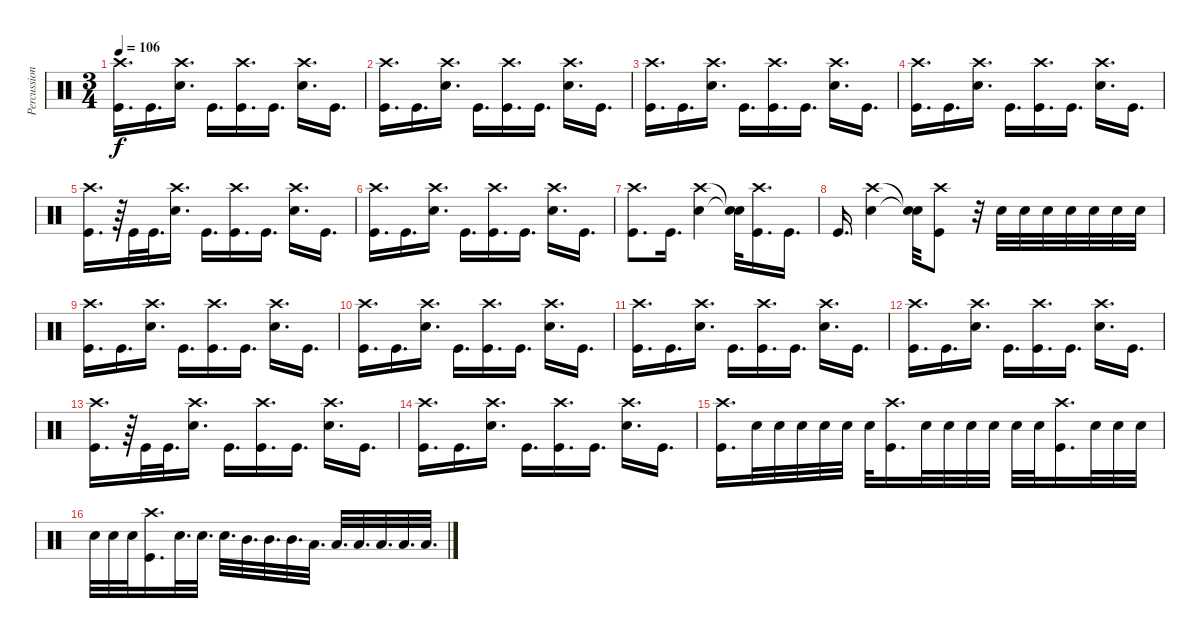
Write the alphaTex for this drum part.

\track ("Percussion" "Percussion") {instrument percussion}
\staff {score}
\articulation defaults
\ts (3 4)
\tempo 106
\clef neutral
\ks c
("Crash high (hit)" "Kick (hit)").16{d dy f} "Kick (hit)".16{d} ("Crash high (hit)" "Electric Snare (hit)").16{d} "Kick (hit)".16{d} ("Crash high (hit)" "Kick (hit)").16{d} "Kick (hit)".16{d} ("Crash high (hit)" "Electric Snare (hit)").16{d} "Kick (hit)".16{d} |
("Crash high (hit)" "Kick (hit)").16{d} "Kick (hit)".16{d} ("Crash high (hit)" "Electric Snare (hit)").16{d} "Kick (hit)".16{d} ("Crash high (hit)" "Kick (hit)").16{d} "Kick (hit)".16{d} ("Crash high (hit)" "Electric Snare (hit)").16{d} "Kick (hit)".16{d} |
("Crash high (hit)" "Kick (hit)").16{d} "Kick (hit)".16{d} ("Crash high (hit)" "Electric Snare (hit)").16{d} "Kick (hit)".16{d} ("Crash high (hit)" "Kick (hit)").16{d} "Kick (hit)".16{d} ("Crash high (hit)" "Electric Snare (hit)").16{d} "Kick (hit)".16{d} |
("Crash high (hit)" "Kick (hit)").16{d} "Kick (hit)".16{d} ("Crash high (hit)" "Electric Snare (hit)").16{d} "Kick (hit)".16{d} ("Crash high (hit)" "Kick (hit)").16{d} "Kick (hit)".16{d} ("Crash high (hit)" "Electric Snare (hit)").16{d} "Kick (hit)".16{d} |
("Crash high (hit)" "Kick (hit)").16{d} r.64 "Kick (hit)".32 "Kick (hit)".32{d} ("Crash high (hit)" "Electric Snare (hit)").16{d} "Kick (hit)".16{d} ("Crash high (hit)" "Kick (hit)").16{d} "Kick (hit)".16{d} ("Crash high (hit)" "Electric Snare (hit)").16{d} "Kick (hit)".16{d} |
("Crash high (hit)" "Kick (hit)").16{d} "Kick (hit)".16{d} ("Crash high (hit)" "Electric Snare (hit)").16{d} "Kick (hit)".16{d} ("Crash high (hit)" "Kick (hit)").16{d} "Kick (hit)".16{d} ("Crash high (hit)" "Electric Snare (hit)").16{d} "Kick (hit)".16{d} |
("Crash high (hit)" "Kick (hit)").8{d} "Kick (hit)".16{d} ("Crash high (hit)" "Electric Snare (hit)").4 ("Snare (hit)"{t} "Snare (hit)"{t}).32 ("Crash high (hit)" "Kick (hit)").16{d} "Kick (hit)".16{d} |
"Kick (hit)".16{d} ("Crash high (hit)" "Electric Snare (hit)").4 ("Snare (hit)"{t} "Snare (hit)"{t}).32 ("Crash high (hit)" "Kick (hit)").8 r.32 "Electric Snare (hit)".32 "Electric Snare (hit)".32 "Electric Snare (hit)".32 "Electric Snare (hit)".32 "Electric Snare (hit)".32 "Electric Snare (hit)".32 "Electric Snare (hit)".32 |
("Crash high (hit)" "Kick (hit)").16{d} "Kick (hit)".16{d} ("Crash high (hit)" "Electric Snare (hit)").16{d} "Kick (hit)".16{d} ("Crash high (hit)" "Kick (hit)").16{d} "Kick (hit)".16{d} ("Crash high (hit)" "Electric Snare (hit)").16{d} "Kick (hit)".16{d} |
("Crash high (hit)" "Kick (hit)").16{d} "Kick (hit)".16{d} ("Crash high (hit)" "Electric Snare (hit)").16{d} "Kick (hit)".16{d} ("Crash high (hit)" "Kick (hit)").16{d} "Kick (hit)".16{d} ("Crash high (hit)" "Electric Snare (hit)").16{d} "Kick (hit)".16{d} |
("Crash high (hit)" "Kick (hit)").16{d} "Kick (hit)".16{d} ("Crash high (hit)" "Electric Snare (hit)").16{d} "Kick (hit)".16{d} ("Crash high (hit)" "Kick (hit)").16{d} "Kick (hit)".16{d} ("Crash high (hit)" "Electric Snare (hit)").16{d} "Kick (hit)".16{d} |
("Crash high (hit)" "Kick (hit)").16{d} "Kick (hit)".16{d} ("Crash high (hit)" "Electric Snare (hit)").16{d} "Kick (hit)".16{d} ("Crash high (hit)" "Kick (hit)").16{d} "Kick (hit)".16{d} ("Crash high (hit)" "Electric Snare (hit)").16{d} "Kick (hit)".16{d} |
("Crash high (hit)" "Kick (hit)").16{d} r.64 "Kick (hit)".32 "Kick (hit)".32{d} ("Crash high (hit)" "Electric Snare (hit)").16{d} "Kick (hit)".16{d} ("Crash high (hit)" "Kick (hit)").16{d} "Kick (hit)".16{d} ("Crash high (hit)" "Electric Snare (hit)").16{d} "Kick (hit)".16{d} |
("Crash high (hit)" "Kick (hit)").16{d} "Kick (hit)".16{d} ("Crash high (hit)" "Electric Snare (hit)").16{d} "Kick (hit)".16{d} ("Crash high (hit)" "Kick (hit)").16{d} "Kick (hit)".16{d} ("Crash high (hit)" "Electric Snare (hit)").16{d} "Kick (hit)".16{d} |
("Crash high (hit)" "Kick (hit)").16{d} "Electric Snare (hit)".32 "Electric Snare (hit)".32 "Electric Snare (hit)".32 "Electric Snare (hit)".32 "Electric Snare (hit)".32 "Electric Snare (hit)".32 ("Crash high (hit)" "Kick (hit)").16{d} "Electric Snare (hit)".32 "Electric Snare (hit)".32 "Electric Snare (hit)".32 "Electric Snare (hit)".32 "Electric Snare (hit)".32 "Electric Snare (hit)".32 ("Crash high (hit)" "Kick (hit)").16{d} "Electric Snare (hit)".32 "Electric Snare (hit)".32 "Electric Snare (hit)".32 |
"Electric Snare (hit)".32 "Electric Snare (hit)".32 "Electric Snare (hit)".32 ("Crash high (hit)" "Kick (hit)").16{d} "Electric Snare (hit)".32{d} "Electric Snare (hit)".32{d} "Electric Snare (hit)".32{d} "Mid Tom (hit)".32{d} "Mid Tom (hit)".32{d} "Mid Tom (hit)".32{d} "Low Tom (hit)".32{d} "Low Tom (hit)".32{d} "Low Tom (hit)".32{d} "Low Floor Tom (hit)".32{d} "Low Floor Tom (hit)".32{d} "Low Floor Tom (hit)".32{d}
